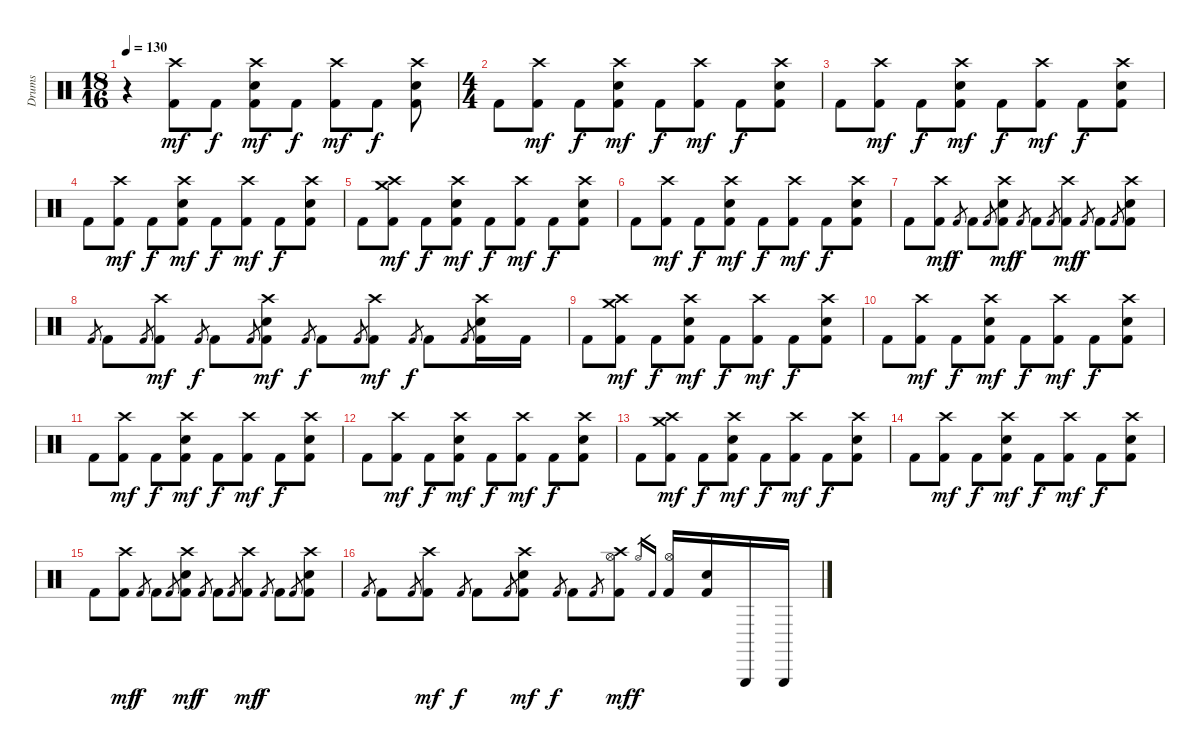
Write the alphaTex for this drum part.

\track ("Drums" "Drums") {instrument percussion}
\staff {score}
\articulation defaults
\ts (18 16)
\tempo 130
\clef neutral
\ks c
r.4{dy mf} ("Crash high (hit)" "Kick (hit) 2").8 "Kick (hit) 2".8{dy f} ("Crash high (hit)" "Electric Snare (hit)" "Kick (hit) 2").8{dy mf} "Kick (hit) 2".8{dy f} ("Crash high (hit)" "Kick (hit) 2").8{dy mf} "Kick (hit) 2".8{dy f} ("Crash high (hit)" "Electric Snare (hit)" "Kick (hit) 2").8 |
\ts (4 4)
"Kick (hit) 2".8 ("Crash high (hit)" "Kick (hit) 2").8{dy mf} "Kick (hit) 2".8{dy f} ("Crash high (hit)" "Electric Snare (hit)" "Kick (hit) 2").8{dy mf} "Kick (hit) 2".8{dy f} ("Crash high (hit)" "Kick (hit) 2").8{dy mf} "Kick (hit) 2".8{dy f} ("Crash high (hit)" "Electric Snare (hit)" "Kick (hit) 2").8 |
"Kick (hit) 2".8 ("Crash high (hit)" "Kick (hit) 2").8{dy mf} "Kick (hit) 2".8{dy f} ("Crash high (hit)" "Electric Snare (hit)" "Kick (hit) 2").8{dy mf} "Kick (hit) 2".8{dy f} ("Crash high (hit)" "Kick (hit) 2").8{dy mf} "Kick (hit) 2".8{dy f} ("Crash high (hit)" "Electric Snare (hit)" "Kick (hit) 2").8 |
"Kick (hit) 2".8 ("Crash high (hit)" "Kick (hit) 2").8{dy mf} "Kick (hit) 2".8{dy f} ("Crash high (hit)" "Electric Snare (hit)" "Kick (hit) 2").8{dy mf} "Kick (hit) 2".8{dy f} ("Crash high (hit)" "Kick (hit) 2").8{dy mf} "Kick (hit) 2".8{dy f} ("Crash high (hit)" "Electric Snare (hit)" "Kick (hit) 2").8 |
"Kick (hit) 2".8 ("Crash high (hit)" "Crash medium (hit)" "Kick (hit) 2").8{dy mf} "Kick (hit) 2".8{dy f} ("Crash high (hit)" "Electric Snare (hit)" "Kick (hit) 2").8{dy mf} "Kick (hit) 2".8{dy f} ("Crash high (hit)" "Kick (hit) 2").8{dy mf} "Kick (hit) 2".8{dy f} ("Crash high (hit)" "Electric Snare (hit)" "Kick (hit) 2").8 |
"Kick (hit) 2".8 ("Crash high (hit)" "Kick (hit) 2").8{dy mf} "Kick (hit) 2".8{dy f} ("Crash high (hit)" "Electric Snare (hit)" "Kick (hit) 2").8{dy mf} "Kick (hit) 2".8{dy f} ("Crash high (hit)" "Kick (hit) 2").8{dy mf} "Kick (hit) 2".8{dy f} ("Crash high (hit)" "Electric Snare (hit)" "Kick (hit) 2").8 |
"Kick (hit) 2".8 ("Crash high (hit)" "Kick (hit) 2").8{dy mf} "Kick (hit) 2".8{gr dy f} "Kick (hit) 2".8 "Kick (hit) 2".8{gr} ("Crash high (hit)" "Electric Snare (hit)" "Kick (hit) 2").8{dy mf} "Kick (hit) 2".8{gr dy f} "Kick (hit) 2".8 "Kick (hit) 2".8{gr} ("Crash high (hit)" "Kick (hit) 2").8{dy mf} "Kick (hit) 2".8{gr dy f} "Kick (hit) 2".8 "Kick (hit) 2".8{gr} ("Crash high (hit)" "Electric Snare (hit)" "Kick (hit) 2").8 |
"Kick (hit) 2".8{gr} "Kick (hit) 2".8 "Kick (hit) 2".8{gr} ("Crash high (hit)" "Kick (hit) 2").8{dy mf} "Kick (hit) 2".8{gr dy f} "Kick (hit) 2".8 "Kick (hit) 2".8{gr} ("Crash high (hit)" "Electric Snare (hit)" "Kick (hit) 2").8{dy mf} "Kick (hit) 2".8{gr dy f} "Kick (hit) 2".8 "Kick (hit) 2".8{gr} ("Crash high (hit)" "Kick (hit) 2").8{dy mf} "Kick (hit) 2".8{gr dy f} "Kick (hit) 2".8 "Kick (hit) 2".8{gr} ("Crash high (hit)" "Electric Snare (hit)" "Kick (hit) 2").16 "Kick (hit) 2".16 |
"Kick (hit) 2".8 ("Crash high (hit)" "Crash medium (hit)" "Kick (hit) 2").8{dy mf} "Kick (hit) 2".8{dy f} ("Crash high (hit)" "Electric Snare (hit)" "Kick (hit) 2").8{dy mf} "Kick (hit) 2".8{dy f} ("Crash high (hit)" "Kick (hit) 2").8{dy mf} "Kick (hit) 2".8{dy f} ("Crash high (hit)" "Electric Snare (hit)" "Kick (hit) 2").8 |
"Kick (hit) 2".8 ("Crash high (hit)" "Kick (hit) 2").8{dy mf} "Kick (hit) 2".8{dy f} ("Crash high (hit)" "Electric Snare (hit)" "Kick (hit) 2").8{dy mf} "Kick (hit) 2".8{dy f} ("Crash high (hit)" "Kick (hit) 2").8{dy mf} "Kick (hit) 2".8{dy f} ("Crash high (hit)" "Electric Snare (hit)" "Kick (hit) 2").8 |
"Kick (hit) 2".8 ("Crash high (hit)" "Kick (hit) 2").8{dy mf} "Kick (hit) 2".8{dy f} ("Crash high (hit)" "Electric Snare (hit)" "Kick (hit) 2").8{dy mf} "Kick (hit) 2".8{dy f} ("Crash high (hit)" "Kick (hit) 2").8{dy mf} "Kick (hit) 2".8{dy f} ("Crash high (hit)" "Electric Snare (hit)" "Kick (hit) 2").8 |
"Kick (hit) 2".8 ("Crash high (hit)" "Kick (hit) 2").8{dy mf} "Kick (hit) 2".8{dy f} ("Crash high (hit)" "Electric Snare (hit)" "Kick (hit) 2").8{dy mf} "Kick (hit) 2".8{dy f} ("Crash high (hit)" "Kick (hit) 2").8{dy mf} "Kick (hit) 2".8{dy f} ("Crash high (hit)" "Electric Snare (hit)" "Kick (hit) 2").8 |
"Kick (hit) 2".8 ("Crash high (hit)" "Crash medium (hit)" "Kick (hit) 2").8{dy mf} "Kick (hit) 2".8{dy f} ("Crash high (hit)" "Electric Snare (hit)" "Kick (hit) 2").8{dy mf} "Kick (hit) 2".8{dy f} ("Crash high (hit)" "Kick (hit) 2").8{dy mf} "Kick (hit) 2".8{dy f} ("Crash high (hit)" "Electric Snare (hit)" "Kick (hit) 2").8 |
"Kick (hit) 2".8 ("Crash high (hit)" "Kick (hit) 2").8{dy mf} "Kick (hit) 2".8{dy f} ("Crash high (hit)" "Electric Snare (hit)" "Kick (hit) 2").8{dy mf} "Kick (hit) 2".8{dy f} ("Crash high (hit)" "Kick (hit) 2").8{dy mf} "Kick (hit) 2".8{dy f} ("Crash high (hit)" "Electric Snare (hit)" "Kick (hit) 2").8 |
"Kick (hit) 2".8 ("Crash high (hit)" "Kick (hit) 2").8{dy mf} "Kick (hit) 2".8{gr dy f} "Kick (hit) 2".8 "Kick (hit) 2".8{gr} ("Crash high (hit)" "Electric Snare (hit)" "Kick (hit) 2").8{dy mf} "Kick (hit) 2".8{gr dy f} "Kick (hit) 2".8 "Kick (hit) 2".8{gr} ("Crash high (hit)" "Kick (hit) 2").8{dy mf} "Kick (hit) 2".8{gr dy f} "Kick (hit) 2".8 "Kick (hit) 2".8{gr} ("Crash high (hit)" "Electric Snare (hit)" "Kick (hit) 2").8 |
"Kick (hit) 2".8{gr} "Kick (hit) 2".8 "Kick (hit) 2".8{gr} ("Crash high (hit)" "Kick (hit) 2").8{dy mf} "Kick (hit) 2".8{gr dy f} "Kick (hit) 2".8 "Kick (hit) 2".8{gr} ("Crash high (hit)" "Electric Snare (hit)" "Kick (hit) 2").8{dy mf} "Kick (hit) 2".8{gr dy f} "Kick (hit) 2".8 "Kick (hit) 2".8{gr} ("Crash high (hit)" "Hi-Hat (open)" "Kick (hit) 2").8{dy mf} "Hi-Hat (open)".16{gr dy f} "Kick (hit) 2".16{gr} ("Hi-Hat (open)" "Kick (hit) 2").16 ("Electric Snare (hit)" "Kick (hit) 2").16 "Triangle (hit)".16 "Triangle (hit)".16
